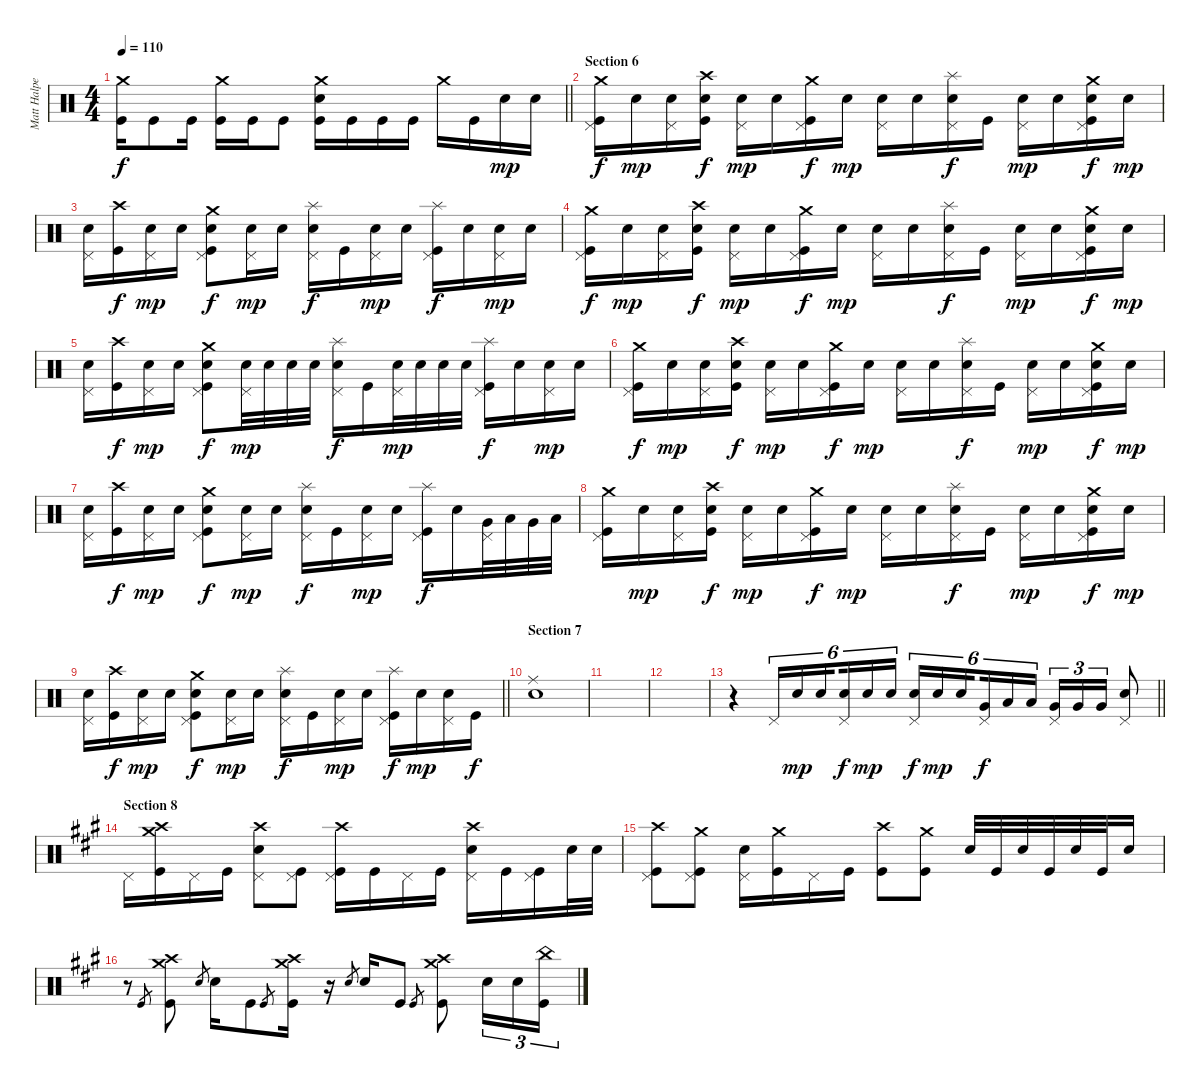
\track ("Matt Halpern" "Matt Halpe") {instrument percussion}
\staff {score}
\articulation defaults
\ts (4 4)
\tempo 110
\clef neutral
\barLineRight lightlight
\ks c
("Crash medium (hit)" "Kick (hit)").16{dy f} "Kick (hit)".8 "Kick (hit)".16 ("Crash medium (hit)" "Kick (hit)").16 "Kick (hit)".16 "Kick (hit)".8 ("Crash medium (hit)" "Electric Snare (hit)" "Kick (hit)").16 "Kick (hit)".16 "Kick (hit)".16 "Kick (hit)".16 "Crash medium (hit)".16 "Kick (hit)".16 "Electric Snare (hit)".16{dy mp} "Electric Snare (hit)".16 |
\section ("" "Section 6")
("Crash medium (hit)" "Kick (hit)" "Pedal Hi-Hat (hit)").16{dy f} "Electric Snare (hit)".16{dy mp} ("Electric Snare (hit)" "Pedal Hi-Hat (hit)").16 ("Crash high (hit)" "Electric Snare (hit)" "Kick (hit)").16{dy f} ("Electric Snare (hit)" "Pedal Hi-Hat (hit)").16{dy mp} "Electric Snare (hit)".16 ("Crash medium (hit)" "Kick (hit)" "Pedal Hi-Hat (hit)").16{dy f} "Electric Snare (hit)".16{dy mp} ("Electric Snare (hit)" "Pedal Hi-Hat (hit)").16 "Electric Snare (hit)".16 ("Splash (hit)" "Electric Snare (hit)" "Pedal Hi-Hat (hit)").16{dy f} "Kick (hit)".16 ("Electric Snare (hit)" "Pedal Hi-Hat (hit)").16{dy mp} "Electric Snare (hit)".16 ("Crash medium (hit)" "Electric Snare (hit)" "Kick (hit)" "Pedal Hi-Hat (hit)").16{dy f} "Electric Snare (hit)".16{dy mp} |
("Electric Snare (hit)" "Pedal Hi-Hat (hit)").16 ("Crash high (hit)" "Kick (hit)").16{dy f} ("Electric Snare (hit)" "Pedal Hi-Hat (hit)").16{dy mp} "Electric Snare (hit)".16 ("Crash medium (hit)" "Electric Snare (hit)" "Kick (hit)" "Pedal Hi-Hat (hit)").8{dy f} ("Electric Snare (hit)" "Pedal Hi-Hat (hit)").16{dy mp} "Electric Snare (hit)".16 ("Splash (hit)" "Electric Snare (hit)" "Pedal Hi-Hat (hit)").16{dy f} "Kick (hit)".16 ("Electric Snare (hit)" "Pedal Hi-Hat (hit)").16{dy mp} "Electric Snare (hit)".16 ("Splash (hit)" "Kick (hit)" "Pedal Hi-Hat (hit)").16{dy f} "Electric Snare (hit)".16 ("Electric Snare (hit)" "Pedal Hi-Hat (hit)").16{dy mp} "Electric Snare (hit)".16 |
("Crash medium (hit)" "Kick (hit)" "Pedal Hi-Hat (hit)").16{dy f} "Electric Snare (hit)".16{dy mp} ("Electric Snare (hit)" "Pedal Hi-Hat (hit)").16 ("Crash high (hit)" "Electric Snare (hit)" "Kick (hit)").16{dy f} ("Electric Snare (hit)" "Pedal Hi-Hat (hit)").16{dy mp} "Electric Snare (hit)".16 ("Crash medium (hit)" "Kick (hit)" "Pedal Hi-Hat (hit)").16{dy f} "Electric Snare (hit)".16{dy mp} ("Electric Snare (hit)" "Pedal Hi-Hat (hit)").16 "Electric Snare (hit)".16 ("Splash (hit)" "Electric Snare (hit)" "Pedal Hi-Hat (hit)").16{dy f} "Kick (hit)".16 ("Electric Snare (hit)" "Pedal Hi-Hat (hit)").16{dy mp} "Electric Snare (hit)".16 ("Crash medium (hit)" "Electric Snare (hit)" "Kick (hit)" "Pedal Hi-Hat (hit)").16{dy f} "Electric Snare (hit)".16{dy mp} |
("Electric Snare (hit)" "Pedal Hi-Hat (hit)").16 ("Crash high (hit)" "Kick (hit)").16{dy f} ("Electric Snare (hit)" "Pedal Hi-Hat (hit)").16{dy mp} "Electric Snare (hit)".16 ("Crash medium (hit)" "Electric Snare (hit)" "Kick (hit)" "Pedal Hi-Hat (hit)").8{dy f} ("Electric Snare (hit)" "Pedal Hi-Hat (hit)").32{dy mp} "Electric Snare (hit)".32 "Electric Snare (hit)".32 "Electric Snare (hit)".32 ("Splash (hit)" "Electric Snare (hit)" "Pedal Hi-Hat (hit)").16{dy f} "Kick (hit)".16 ("Electric Snare (hit)" "Pedal Hi-Hat (hit)").32{dy mp} "Electric Snare (hit)".32 "Electric Snare (hit)".32 "Electric Snare (hit)".32 ("Splash (hit)" "Kick (hit)" "Pedal Hi-Hat (hit)").16{dy f} "Electric Snare (hit)".16 ("Electric Snare (hit)" "Pedal Hi-Hat (hit)").16{dy mp} "Electric Snare (hit)".16 |
("Crash medium (hit)" "Kick (hit)" "Pedal Hi-Hat (hit)").16{dy f} "Electric Snare (hit)".16{dy mp} ("Electric Snare (hit)" "Pedal Hi-Hat (hit)").16 ("Crash high (hit)" "Electric Snare (hit)" "Kick (hit)").16{dy f} ("Electric Snare (hit)" "Pedal Hi-Hat (hit)").16{dy mp} "Electric Snare (hit)".16 ("Crash medium (hit)" "Kick (hit)" "Pedal Hi-Hat (hit)").16{dy f} "Electric Snare (hit)".16{dy mp} ("Electric Snare (hit)" "Pedal Hi-Hat (hit)").16 "Electric Snare (hit)".16 ("Splash (hit)" "Electric Snare (hit)" "Pedal Hi-Hat (hit)").16{dy f} "Kick (hit)".16 ("Electric Snare (hit)" "Pedal Hi-Hat (hit)").16{dy mp} "Electric Snare (hit)".16 ("Crash medium (hit)" "Electric Snare (hit)" "Kick (hit)" "Pedal Hi-Hat (hit)").16{dy f} "Electric Snare (hit)".16{dy mp} |
("Electric Snare (hit)" "Pedal Hi-Hat (hit)").16 ("Crash high (hit)" "Kick (hit)").16{dy f} ("Electric Snare (hit)" "Pedal Hi-Hat (hit)").16{dy mp} "Electric Snare (hit)".16 ("Crash medium (hit)" "Electric Snare (hit)" "Kick (hit)" "Pedal Hi-Hat (hit)").8{dy f} ("Electric Snare (hit)" "Pedal Hi-Hat (hit)").16{dy mp} "Electric Snare (hit)".16 ("Splash (hit)" "Electric Snare (hit)" "Pedal Hi-Hat (hit)").16{dy f} "Kick (hit)".16 ("Electric Snare (hit)" "Pedal Hi-Hat (hit)").16{dy mp} "Electric Snare (hit)".16 ("Splash (hit)" "Kick (hit)" "Pedal Hi-Hat (hit)").16{dy f} "Electric Snare (hit)".16 ("Very Low Tom (hit)" "Pedal Hi-Hat (hit)").32 "Low Tom (hit)".32 "Very Low Tom (hit)".32 "Low Tom (hit)".32 |
("Crash medium (hit)" "Kick (hit)" "Pedal Hi-Hat (hit)").16 "Electric Snare (hit)".16{dy mp} ("Electric Snare (hit)" "Pedal Hi-Hat (hit)").16 ("Crash high (hit)" "Electric Snare (hit)" "Kick (hit)").16{dy f} ("Electric Snare (hit)" "Pedal Hi-Hat (hit)").16{dy mp} "Electric Snare (hit)".16 ("Crash medium (hit)" "Kick (hit)" "Pedal Hi-Hat (hit)").16{dy f} "Electric Snare (hit)".16{dy mp} ("Electric Snare (hit)" "Pedal Hi-Hat (hit)").16 "Electric Snare (hit)".16 ("Splash (hit)" "Electric Snare (hit)" "Pedal Hi-Hat (hit)").16{dy f} "Kick (hit)".16 ("Electric Snare (hit)" "Pedal Hi-Hat (hit)").16{dy mp} "Electric Snare (hit)".16 ("Crash medium (hit)" "Electric Snare (hit)" "Kick (hit)" "Pedal Hi-Hat (hit)").16{dy f} "Electric Snare (hit)".16{dy mp} |
\barLineRight lightlight
("Electric Snare (hit)" "Pedal Hi-Hat (hit)").16 ("Crash high (hit)" "Kick (hit)").16{dy f} ("Electric Snare (hit)" "Pedal Hi-Hat (hit)").16{dy mp} "Electric Snare (hit)".16 ("Crash medium (hit)" "Electric Snare (hit)" "Kick (hit)" "Pedal Hi-Hat (hit)").8{dy f} ("Electric Snare (hit)" "Pedal Hi-Hat (hit)").16{dy mp} "Electric Snare (hit)".16 ("Splash (hit)" "Electric Snare (hit)" "Pedal Hi-Hat (hit)").16{dy f} "Kick (hit)".16 ("Electric Snare (hit)" "Pedal Hi-Hat (hit)").16{dy mp} "Electric Snare (hit)".16 ("Splash (hit)" "Kick (hit)" "Pedal Hi-Hat (hit)").16{dy f} "Electric Snare (hit)".16{dy mp} ("Electric Snare (hit)" "Pedal Hi-Hat (hit)").16 "Kick (hit)".16{dy f} |
\section ("" "Section 7")
("Ride (middle)" "Electric Snare (hit)").1 |
|
|
\barLineRight lightlight
r.4 "Pedal Hi-Hat (hit)".16{tu (6 4)} "Electric Snare (hit)".16{tu (6 4) dy mp} "Electric Snare (hit)".16{tu (6 4) beam splitsecondary} ("Electric Snare (hit)" "Pedal Hi-Hat (hit)").16{tu (6 4) dy f} "Electric Snare (hit)".16{tu (6 4) dy mp} "Electric Snare (hit)".16{tu (6 4)} ("Electric Snare (hit)" "Pedal Hi-Hat (hit)").16{tu (6 4) dy f} "Electric Snare (hit)".16{tu (6 4) dy mp} "Electric Snare (hit)".16{tu (6 4) beam splitsecondary} ("Very Low Tom (hit)" "Pedal Hi-Hat (hit)").16{tu (6 4) dy f} "Low Tom (hit)".16{tu (6 4)} "Low Tom (hit)".16{tu (6 4)} ("Very Low Tom (hit)" "Pedal Hi-Hat (hit)").16{tu (3 2)} "Very Low Tom (hit)".16{tu (3 2)} "Very Low Tom (hit)".16{tu (3 2)} ("Electric Snare (hit)" "Pedal Hi-Hat (hit)").8 |
\section ("" "Section 8")
\ks f#minor "Pedal Hi-Hat (hit)".16
("Crash high (hit)" "Crash medium (hit)" "Kick (hit)").16 "Pedal Hi-Hat (hit)".16 "Kick (hit)".16 ("Crash high (hit)" "Electric Snare (hit)" "Pedal Hi-Hat (hit)").8 ("Kick (hit)" "Pedal Hi-Hat (hit)").8 ("Crash high (hit)" "Kick (hit)" "Pedal Hi-Hat (hit)").16 "Kick (hit)".16 "Pedal Hi-Hat (hit)".16 "Kick (hit)".16 ("Crash high (hit)" "Electric Snare (hit)" "Pedal Hi-Hat (hit)").16 "Kick (hit)".16 ("Kick (hit)" "Pedal Hi-Hat (hit)").16 "Electric Snare (hit)".32 "Electric Snare (hit)".32 |
("Crash high (hit)" "Kick (hit)" "Pedal Hi-Hat (hit)").8 ("Crash medium (hit)" "Kick (hit)" "Pedal Hi-Hat (hit)").8 ("Electric Snare (hit)" "Pedal Hi-Hat (hit)").16 ("Crash medium (hit)" "Kick (hit)").16 "Pedal Hi-Hat (hit)".16 "Kick (hit)".16 ("Crash high (hit)" "Kick (hit)").8 ("Crash medium (hit)" "Kick (hit)").8 "Electric Snare (hit)".32 "Kick (hit)".32 "Electric Snare (hit)".32 "Kick (hit)".32 "Electric Snare (hit)".32 "Kick (hit)".32 "Electric Snare (hit)".16 |
r.8 "Kick (hit)".8{gr} ("Crash high (hit)" "Crash medium (hit)" "Kick (hit)").8 "Electric Snare (hit)".8{gr} "Electric Snare (hit)".16 "Kick (hit)".8 "Kick (hit)".8{gr} ("Crash high (hit)" "Crash medium (hit)" "Kick (hit)").16 r.16 "Electric Snare (hit)".8{gr} "Electric Snare (hit)".16 "Kick (hit)".8 "Kick (hit)".8{gr} ("Crash high (hit)" "Crash medium (hit)" "Kick (hit)").8 "Electric Snare (hit)".16{tu (3 2)} "Electric Snare (hit)".16{tu (3 2)} ("China (hit)" "Kick (hit)").16{tu (3 2)}
